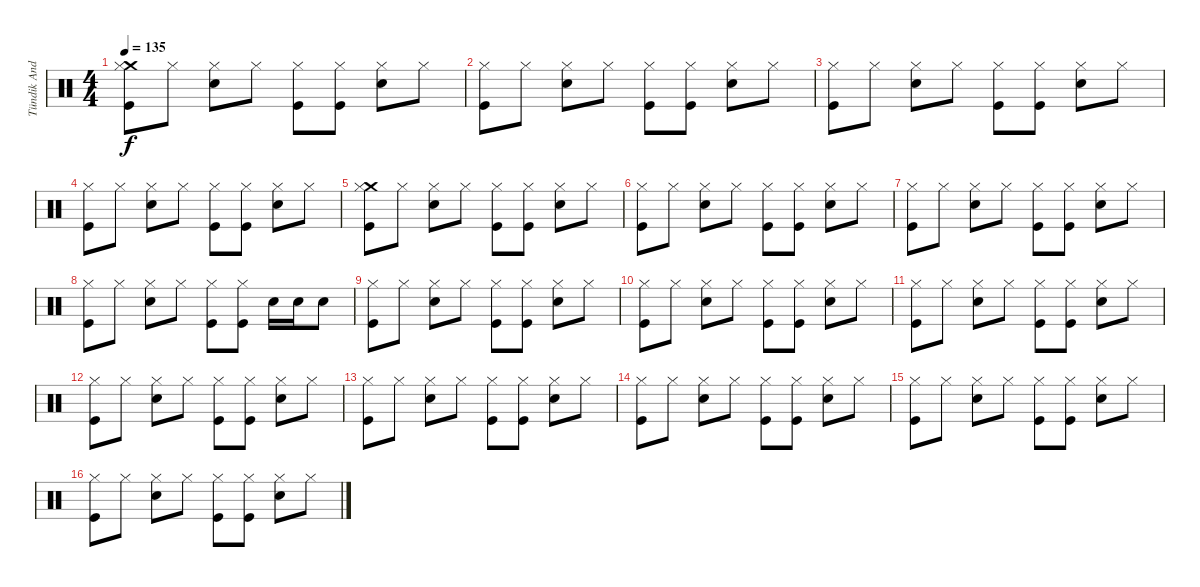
\track ("Tündik András - Dob" "Tündik And") {instrument percussion}
\staff {score}
\articulation defaults
\ts (4 4)
\tempo 135
\clef neutral
\ks c
("Crash medium (hit)" "Hi-Hat (closed)" "Kick (hit)").8{dy f} "Hi-Hat (closed)".8 ("Snare (hit) 2" "Hi-Hat (closed)").8 "Hi-Hat (closed)".8 ("Hi-Hat (closed)" "Kick (hit)").8 ("Hi-Hat (closed)" "Kick (hit)").8 ("Snare (hit) 2" "Hi-Hat (closed)").8 "Hi-Hat (closed)".8 |
("Hi-Hat (closed)" "Kick (hit)").8 "Hi-Hat (closed)".8 ("Snare (hit) 2" "Hi-Hat (closed)").8 "Hi-Hat (closed)".8 ("Hi-Hat (closed)" "Kick (hit)").8 ("Hi-Hat (closed)" "Kick (hit)").8 ("Snare (hit) 2" "Hi-Hat (closed)").8 "Hi-Hat (closed)".8 |
("Hi-Hat (closed)" "Kick (hit)").8 "Hi-Hat (closed)".8 ("Snare (hit) 2" "Hi-Hat (closed)").8 "Hi-Hat (closed)".8 ("Hi-Hat (closed)" "Kick (hit)").8 ("Hi-Hat (closed)" "Kick (hit)").8 ("Snare (hit) 2" "Hi-Hat (closed)").8 "Hi-Hat (closed)".8 |
("Hi-Hat (closed)" "Kick (hit)").8 "Hi-Hat (closed)".8 ("Snare (hit) 2" "Hi-Hat (closed)").8 "Hi-Hat (closed)".8 ("Hi-Hat (closed)" "Kick (hit)").8 ("Hi-Hat (closed)" "Kick (hit)").8 ("Snare (hit) 2" "Hi-Hat (closed)").8 "Hi-Hat (closed)".8 |
("Crash medium (hit)" "Hi-Hat (closed)" "Kick (hit)").8 "Hi-Hat (closed)".8 ("Snare (hit) 2" "Hi-Hat (closed)").8 "Hi-Hat (closed)".8 ("Hi-Hat (closed)" "Kick (hit)").8 ("Hi-Hat (closed)" "Kick (hit)").8 ("Snare (hit) 2" "Hi-Hat (closed)").8 "Hi-Hat (closed)".8 |
("Hi-Hat (closed)" "Kick (hit)").8 "Hi-Hat (closed)".8 ("Snare (hit) 2" "Hi-Hat (closed)").8 "Hi-Hat (closed)".8 ("Hi-Hat (closed)" "Kick (hit)").8 ("Hi-Hat (closed)" "Kick (hit)").8 ("Snare (hit) 2" "Hi-Hat (closed)").8 "Hi-Hat (closed)".8 |
("Hi-Hat (closed)" "Kick (hit)").8 "Hi-Hat (closed)".8 ("Snare (hit) 2" "Hi-Hat (closed)").8 "Hi-Hat (closed)".8 ("Hi-Hat (closed)" "Kick (hit)").8 ("Hi-Hat (closed)" "Kick (hit)").8 ("Snare (hit) 2" "Hi-Hat (closed)").8 "Hi-Hat (closed)".8 |
("Hi-Hat (closed)" "Kick (hit)").8 "Hi-Hat (closed)".8 ("Snare (hit) 2" "Hi-Hat (closed)").8 "Hi-Hat (closed)".8 ("Hi-Hat (closed)" "Kick (hit)").8 ("Hi-Hat (closed)" "Kick (hit)").8 "Snare (hit) 2".16 "Snare (hit) 2".16 "Snare (hit) 2".8 |
("Hi-Hat (closed)" "Kick (hit)").8 "Hi-Hat (closed)".8 ("Snare (hit) 2" "Hi-Hat (closed)").8 "Hi-Hat (closed)".8 ("Hi-Hat (closed)" "Kick (hit)").8 ("Hi-Hat (closed)" "Kick (hit)").8 ("Snare (hit) 2" "Hi-Hat (closed)").8 "Hi-Hat (closed)".8 |
("Hi-Hat (closed)" "Kick (hit)").8 "Hi-Hat (closed)".8 ("Snare (hit) 2" "Hi-Hat (closed)").8 "Hi-Hat (closed)".8 ("Hi-Hat (closed)" "Kick (hit)").8 ("Hi-Hat (closed)" "Kick (hit)").8 ("Snare (hit) 2" "Hi-Hat (closed)").8 "Hi-Hat (closed)".8 |
("Hi-Hat (closed)" "Kick (hit)").8 "Hi-Hat (closed)".8 ("Snare (hit) 2" "Hi-Hat (closed)").8 "Hi-Hat (closed)".8 ("Hi-Hat (closed)" "Kick (hit)").8 ("Hi-Hat (closed)" "Kick (hit)").8 ("Snare (hit) 2" "Hi-Hat (closed)").8 "Hi-Hat (closed)".8 |
("Hi-Hat (closed)" "Kick (hit)").8 "Hi-Hat (closed)".8 ("Snare (hit) 2" "Hi-Hat (closed)").8 "Hi-Hat (closed)".8 ("Hi-Hat (closed)" "Kick (hit)").8 ("Hi-Hat (closed)" "Kick (hit)").8 ("Snare (hit) 2" "Hi-Hat (closed)").8 "Hi-Hat (closed)".8 |
("Hi-Hat (closed)" "Kick (hit)").8 "Hi-Hat (closed)".8 ("Snare (hit) 2" "Hi-Hat (closed)").8 "Hi-Hat (closed)".8 ("Hi-Hat (closed)" "Kick (hit)").8 ("Hi-Hat (closed)" "Kick (hit)").8 ("Snare (hit) 2" "Hi-Hat (closed)").8 "Hi-Hat (closed)".8 |
("Hi-Hat (closed)" "Kick (hit)").8 "Hi-Hat (closed)".8 ("Snare (hit) 2" "Hi-Hat (closed)").8 "Hi-Hat (closed)".8 ("Hi-Hat (closed)" "Kick (hit)").8 ("Hi-Hat (closed)" "Kick (hit)").8 ("Snare (hit) 2" "Hi-Hat (closed)").8 "Hi-Hat (closed)".8 |
("Hi-Hat (closed)" "Kick (hit)").8 "Hi-Hat (closed)".8 ("Snare (hit) 2" "Hi-Hat (closed)").8 "Hi-Hat (closed)".8 ("Hi-Hat (closed)" "Kick (hit)").8 ("Hi-Hat (closed)" "Kick (hit)").8 ("Snare (hit) 2" "Hi-Hat (closed)").8 "Hi-Hat (closed)".8 |
("Hi-Hat (closed)" "Kick (hit)").8 "Hi-Hat (closed)".8 ("Snare (hit) 2" "Hi-Hat (closed)").8 "Hi-Hat (closed)".8 ("Hi-Hat (closed)" "Kick (hit)").8 ("Hi-Hat (closed)" "Kick (hit)").8 ("Snare (hit) 2" "Hi-Hat (closed)").8 "Hi-Hat (closed)".8
